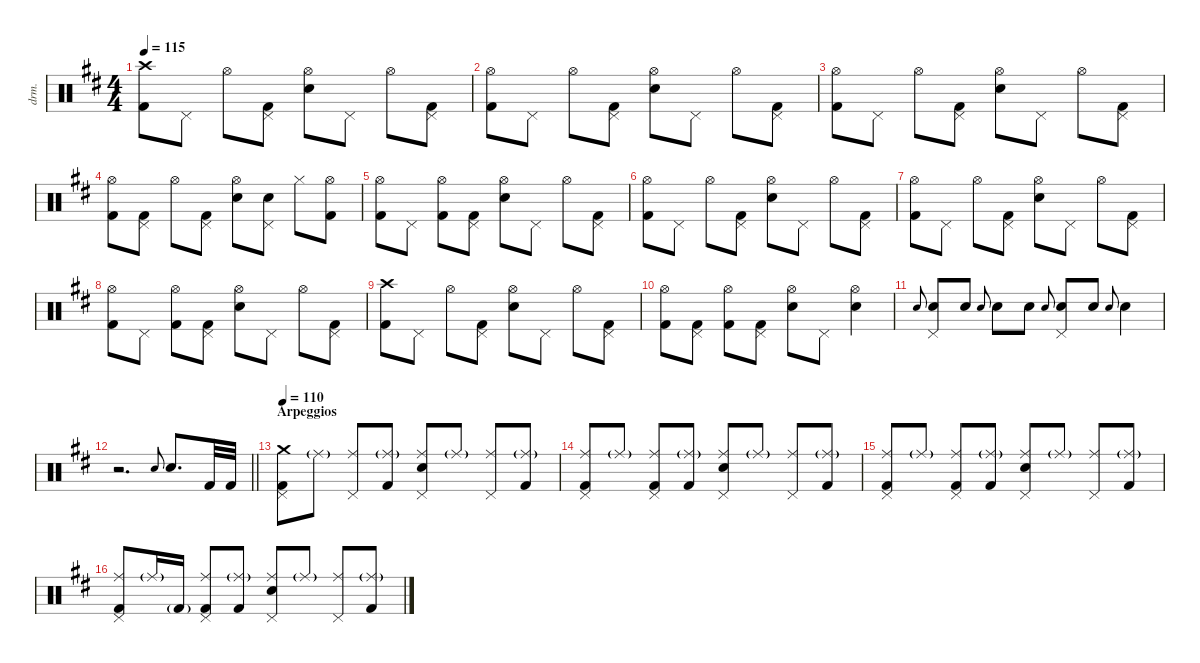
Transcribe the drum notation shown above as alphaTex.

\defaultSystemsLayout 4
\hideDynamics
\bracketExtendMode nobrackets
\track ("Atma Anur" "drm.") {solo instrument percussion}
\staff {score}
\articulation defaults
\ts (4 4)
\tempo 115
\clef neutral
\ks bminor
("Crash high (hit)"{acc forcenatural} "Kick (hit) 2"{acc forcenatural}).8{dy fff beam Down} "Pedal Hi-Hat (hit)"{acc forcenatural}.8{beam Down} "Hi-Hat (open)"{acc forcenatural}.8{beam Down} ("Pedal Hi-Hat (hit)"{acc forcenatural} "Kick (hit) 2"{acc forcenatural}).8{beam Down} ("Hi-Hat (open)"{acc forcenatural} "Snare (hit) 2"{acc forcenatural}).8{beam Down} "Pedal Hi-Hat (hit)"{acc forcenatural}.8{beam Down} "Hi-Hat (open)"{acc forcenatural}.8{beam Down} ("Pedal Hi-Hat (hit)"{acc forcenatural} "Kick (hit) 2"{acc forcenatural}).8{beam Down} |
("Hi-Hat (open)"{acc forcenatural} "Kick (hit) 2"{acc forcenatural}).8{beam Down} "Pedal Hi-Hat (hit)"{acc forcenatural}.8{beam Down} "Hi-Hat (open)"{acc forcenatural}.8{beam Down} ("Pedal Hi-Hat (hit)"{acc forcenatural} "Kick (hit) 2"{acc forcenatural}).8{beam Down} ("Hi-Hat (open)"{acc forcenatural} "Snare (hit) 2"{acc forcenatural}).8{beam Down} "Pedal Hi-Hat (hit)"{acc forcenatural}.8{beam Down} "Hi-Hat (open)"{acc forcenatural}.8{beam Down} ("Pedal Hi-Hat (hit)"{acc forcenatural} "Kick (hit) 2"{acc forcenatural}).8{beam Down} |
("Hi-Hat (open)"{acc forcenatural} "Kick (hit) 2"{acc forcenatural}).8{beam Down} "Pedal Hi-Hat (hit)"{acc forcenatural}.8{beam Down} "Hi-Hat (open)"{acc forcenatural}.8{beam Down} ("Pedal Hi-Hat (hit)"{acc forcenatural} "Kick (hit) 2"{acc forcenatural}).8{beam Down} ("Hi-Hat (open)"{acc forcenatural} "Snare (hit) 2"{acc forcenatural}).8{beam Down} "Pedal Hi-Hat (hit)"{acc forcenatural}.8{beam Down} "Hi-Hat (open)"{acc forcenatural}.8{beam Down} ("Pedal Hi-Hat (hit)"{acc forcenatural} "Kick (hit) 2"{acc forcenatural}).8{beam Down} |
("Hi-Hat (open)"{acc forcenatural} "Kick (hit) 2"{acc forcenatural}).8{beam Down} ("Pedal Hi-Hat (hit)"{acc forcenatural} "Kick (hit) 2"{acc forcenatural}).8{beam Down} "Hi-Hat (open)"{acc forcenatural}.8{beam Down} ("Pedal Hi-Hat (hit)"{acc forcenatural} "Kick (hit) 2"{acc forcenatural}).8{beam Down} ("Hi-Hat (open)"{acc forcenatural} "Snare (hit) 2"{acc forcenatural}).8{beam Down} ("Pedal Hi-Hat (hit)"{acc forcenatural} "Snare (hit) 2"{acc forcenatural}).8{beam Down} "Hi-Hat (closed)"{acc forcenatural}.8{beam Down} ("Hi-Hat (open)"{acc forcenatural} "Kick (hit) 2"{acc forcenatural}).8{beam Down} |
("Hi-Hat (open)"{acc forcenatural} "Kick (hit) 2"{acc forcenatural}).8{beam Down} "Pedal Hi-Hat (hit)"{acc forcenatural}.8{beam Down} ("Hi-Hat (open)"{acc forcenatural} "Kick (hit) 2"{acc forcenatural}).8{beam Down} ("Pedal Hi-Hat (hit)"{acc forcenatural} "Kick (hit) 2"{acc forcenatural}).8{beam Down} ("Hi-Hat (open)"{acc forcenatural} "Snare (hit) 2"{acc forcenatural}).8{beam Down} "Pedal Hi-Hat (hit)"{acc forcenatural}.8{beam Down} "Hi-Hat (open)"{acc forcenatural}.8{beam Down} ("Pedal Hi-Hat (hit)"{acc forcenatural} "Kick (hit) 2"{acc forcenatural}).8{beam Down} |
("Hi-Hat (open)"{acc forcenatural} "Kick (hit) 2"{acc forcenatural}).8{beam Down} "Pedal Hi-Hat (hit)"{acc forcenatural}.8{beam Down} "Hi-Hat (open)"{acc forcenatural}.8{beam Down} ("Pedal Hi-Hat (hit)"{acc forcenatural} "Kick (hit) 2"{acc forcenatural}).8{beam Down} ("Hi-Hat (open)"{acc forcenatural} "Snare (hit) 2"{acc forcenatural}).8{beam Down} "Pedal Hi-Hat (hit)"{acc forcenatural}.8{beam Down} "Hi-Hat (open)"{acc forcenatural}.8{beam Down} ("Pedal Hi-Hat (hit)"{acc forcenatural} "Kick (hit) 2"{acc forcenatural}).8{beam Down} |
("Hi-Hat (open)"{acc forcenatural} "Kick (hit) 2"{acc forcenatural}).8{beam Down} "Pedal Hi-Hat (hit)"{acc forcenatural}.8{beam Down} "Hi-Hat (open)"{acc forcenatural}.8{beam Down} ("Pedal Hi-Hat (hit)"{acc forcenatural} "Kick (hit) 2"{acc forcenatural}).8{beam Down} ("Hi-Hat (open)"{acc forcenatural} "Snare (hit) 2"{acc forcenatural}).8{beam Down} "Pedal Hi-Hat (hit)"{acc forcenatural}.8{beam Down} "Hi-Hat (open)"{acc forcenatural}.8{beam Down} ("Pedal Hi-Hat (hit)"{acc forcenatural} "Kick (hit) 2"{acc forcenatural}).8{beam Down} |
("Hi-Hat (open)"{acc forcenatural} "Kick (hit) 2"{acc forcenatural}).8{beam Down} "Pedal Hi-Hat (hit)"{acc forcenatural}.8{beam Down} ("Hi-Hat (open)"{acc forcenatural} "Kick (hit) 2"{acc forcenatural}).8{beam Down} ("Pedal Hi-Hat (hit)"{acc forcenatural} "Kick (hit) 2"{acc forcenatural}).8{beam Down} ("Hi-Hat (open)"{acc forcenatural} "Snare (hit) 2"{acc forcenatural}).8{beam Down} "Pedal Hi-Hat (hit)"{acc forcenatural}.8{beam Down} "Hi-Hat (open)"{acc forcenatural}.8{beam Down} ("Pedal Hi-Hat (hit)"{acc forcenatural} "Kick (hit) 2"{acc forcenatural}).8{beam Down} |
("Crash high (hit)"{acc forcenatural} "Kick (hit) 2"{acc forcenatural}).8{beam Down} "Pedal Hi-Hat (hit)"{acc forcenatural}.8{beam Down} "Hi-Hat (open)"{acc forcenatural}.8{beam Down} ("Pedal Hi-Hat (hit)"{acc forcenatural} "Kick (hit) 2"{acc forcenatural}).8{beam Down} ("Hi-Hat (open)"{acc forcenatural} "Snare (hit) 2"{acc forcenatural}).8{beam Down} "Pedal Hi-Hat (hit)"{acc forcenatural}.8{beam Down} "Hi-Hat (open)"{acc forcenatural}.8{beam Down} ("Pedal Hi-Hat (hit)"{acc forcenatural} "Kick (hit) 2"{acc forcenatural}).8{beam Down} |
("Hi-Hat (open)"{acc forcenatural} "Kick (hit) 2"{acc forcenatural}).8{beam Down} ("Pedal Hi-Hat (hit)"{acc forcenatural} "Kick (hit) 2"{acc forcenatural}).8{beam Down} ("Hi-Hat (open)"{acc forcenatural} "Kick (hit) 2"{acc forcenatural}).8{beam Down} ("Pedal Hi-Hat (hit)"{acc forcenatural} "Kick (hit) 2"{acc forcenatural}).8{beam Down} ("Hi-Hat (open)"{acc forcenatural} "Snare (hit) 2"{acc forcenatural}).8{beam Down} "Pedal Hi-Hat (hit)"{acc forcenatural}.8{beam Down} ("Hi-Hat (open)"{acc forcenatural} "Snare (hit) 2"{acc forcenatural}).4{beam Down} |
"Electric Snare (hit)"{acc forcenatural}.8{gr onbeat dy ppp beam Up} ("Snare (hit) 2"{acc forcenatural} "Pedal Hi-Hat (hit)"{acc forcenatural}).8{dy pp beam Up} "Snare (hit) 2"{acc forcenatural}.8{dy p beam Up} "Electric Snare (hit)"{acc forcenatural}.8{gr onbeat dy pp beam Up} "Snare (hit) 2"{acc forcenatural}.8{dy mp beam Down} "Snare (hit) 2"{acc forcenatural}.8{dy mf beam Down} "Electric Snare (hit)"{acc forcenatural}.8{gr onbeat dy mp beam Up} ("Snare (hit) 2"{acc forcenatural} "Pedal Hi-Hat (hit)"{acc forcenatural}).8{dy f beam Up} "Snare (hit) 2"{acc forcenatural}.8{dy ff beam Up} "Electric Snare (hit)"{acc forcenatural}.8{gr onbeat beam Up} "Snare (hit) 2"{acc forcenatural}.4{dy fff beam Down} |
\barLineRight lightlight
r.2{d beam Down} "Electric Snare (hit)"{acc forcenatural}.8{gr onbeat dy ff beam Up} "Snare (hit) 2"{acc forcenatural}.8{d dy fff beam Up} "Kick (hit) 2"{acc forcenatural}.32{beam Up} "Kick (hit) 2"{acc forcenatural}.32{beam Up} |
\section ("" "Arpeggios")
\tempo 110
("Crash medium (hit)"{acc forcenatural} "Pedal Hi-Hat (hit)"{acc forcenatural} "Kick (hit) 2"{acc forcenatural}).8{beam Down} "Ride (middle)"{g acc forcenatural}.8{dy ff beam Down} ("Ride (middle)"{acc forcenatural} "Pedal Hi-Hat (hit)"{acc forcenatural}).8{dy fff beam Up} ("Ride (middle)"{g acc forcenatural} "Kick (hit) 2"{acc forcenatural}).8{beam Up} ("Ride (middle)"{acc forcenatural} "Snare (hit) 2"{acc forcenatural} "Pedal Hi-Hat (hit)"{acc forcenatural}).8{beam Up} "Ride (middle)"{g acc forcenatural}.8{dy ff beam Up} ("Ride (middle)"{acc forcenatural} "Pedal Hi-Hat (hit)"{acc forcenatural}).8{dy fff beam Up} ("Ride (middle)"{g acc forcenatural} "Kick (hit) 2"{acc forcenatural}).8{beam Up} |
("Ride (middle)"{acc forcenatural} "Pedal Hi-Hat (hit)"{acc forcenatural} "Kick (hit) 2"{acc forcenatural}).8{beam Up} "Ride (middle)"{g acc forcenatural}.8{dy ff beam Up} ("Ride (middle)"{acc forcenatural} "Pedal Hi-Hat (hit)"{acc forcenatural} "Kick (hit) 2"{acc forcenatural}).8{dy fff beam Up} ("Ride (middle)"{g acc forcenatural} "Kick (hit) 2"{acc forcenatural}).8{beam Up} ("Ride (middle)"{acc forcenatural} "Snare (hit) 2"{acc forcenatural} "Pedal Hi-Hat (hit)"{acc forcenatural}).8{beam Up} "Ride (middle)"{g acc forcenatural}.8{dy ff beam Up} ("Ride (middle)"{acc forcenatural} "Pedal Hi-Hat (hit)"{acc forcenatural}).8{dy fff beam Up} ("Ride (middle)"{g acc forcenatural} "Kick (hit) 2"{acc forcenatural}).8{beam Up} |
("Ride (middle)"{acc forcenatural} "Pedal Hi-Hat (hit)"{acc forcenatural} "Kick (hit) 2"{acc forcenatural}).8{beam Up} "Ride (middle)"{g acc forcenatural}.8{dy ff beam Up} ("Ride (middle)"{acc forcenatural} "Pedal Hi-Hat (hit)"{acc forcenatural} "Kick (hit) 2"{acc forcenatural}).8{dy fff beam Up} ("Ride (middle)"{g acc forcenatural} "Kick (hit) 2"{acc forcenatural}).8{beam Up} ("Ride (middle)"{acc forcenatural} "Snare (hit) 2"{acc forcenatural} "Pedal Hi-Hat (hit)"{acc forcenatural}).8{beam Up} "Ride (middle)"{g acc forcenatural}.8{dy ff beam Up} ("Ride (middle)"{acc forcenatural} "Pedal Hi-Hat (hit)"{acc forcenatural}).8{dy fff beam Up} ("Ride (middle)"{g acc forcenatural} "Kick (hit) 2"{acc forcenatural}).8{beam Up} |
("Ride (middle)"{acc forcenatural} "Pedal Hi-Hat (hit)"{acc forcenatural} "Kick (hit) 2"{acc forcenatural}).8{beam Up} "Ride (middle)"{g acc forcenatural}.16{dy ff beam Up} "Kick (hit) 2"{g acc forcenatural}.16{beam Up} ("Ride (middle)"{acc forcenatural} "Pedal Hi-Hat (hit)"{acc forcenatural} "Kick (hit) 2"{acc forcenatural}).8{dy fff beam Up} ("Ride (middle)"{g acc forcenatural} "Kick (hit) 2"{acc forcenatural}).8{beam Up} ("Ride (middle)"{acc forcenatural} "Snare (hit) 2"{acc forcenatural} "Pedal Hi-Hat (hit)"{acc forcenatural}).8{beam Up} "Ride (middle)"{g acc forcenatural}.8{dy ff beam Up} ("Ride (middle)"{acc forcenatural} "Pedal Hi-Hat (hit)"{acc forcenatural}).8{dy fff beam Up} ("Ride (middle)"{g acc forcenatural} "Kick (hit) 2"{acc forcenatural}).8{beam Up}
